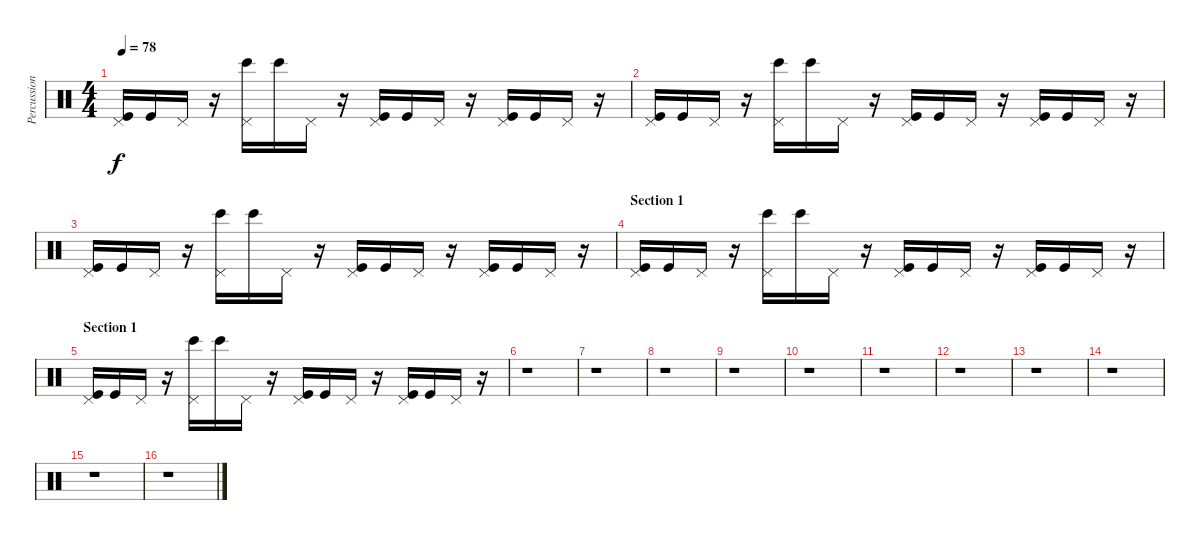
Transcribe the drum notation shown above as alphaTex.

\track ("Percussions" "Percussion") {instrument percussion}
\staff {score}
\articulation defaults
\ts (4 4)
\tempo 78
\clef neutral
\ks c
("Kick (hit)" "Pedal Hi-Hat (hit)").16{dy f} "Kick (hit)".16 "Pedal Hi-Hat (hit)".16 r.16 ("Bongo High (hit)" "Pedal Hi-Hat (hit)").16 "Bongo High (hit)".16 "Pedal Hi-Hat (hit)".16 r.16 ("Kick (hit)" "Pedal Hi-Hat (hit)").16 "Kick (hit)".16 "Pedal Hi-Hat (hit)".16 r.16 ("Kick (hit)" "Pedal Hi-Hat (hit)").16 "Kick (hit)".16 "Pedal Hi-Hat (hit)".16 r.16 |
("Kick (hit)" "Pedal Hi-Hat (hit)").16 "Kick (hit)".16 "Pedal Hi-Hat (hit)".16 r.16 ("Bongo High (hit)" "Pedal Hi-Hat (hit)").16 "Bongo High (hit)".16 "Pedal Hi-Hat (hit)".16 r.16 ("Kick (hit)" "Pedal Hi-Hat (hit)").16 "Kick (hit)".16 "Pedal Hi-Hat (hit)".16 r.16 ("Kick (hit)" "Pedal Hi-Hat (hit)").16 "Kick (hit)".16 "Pedal Hi-Hat (hit)".16 r.16 |
("Kick (hit)" "Pedal Hi-Hat (hit)").16 "Kick (hit)".16 "Pedal Hi-Hat (hit)".16 r.16 ("Bongo High (hit)" "Pedal Hi-Hat (hit)").16 "Bongo High (hit)".16 "Pedal Hi-Hat (hit)".16 r.16 ("Kick (hit)" "Pedal Hi-Hat (hit)").16 "Kick (hit)".16 "Pedal Hi-Hat (hit)".16 r.16 ("Kick (hit)" "Pedal Hi-Hat (hit)").16 "Kick (hit)".16{volume 9} "Pedal Hi-Hat (hit)".16{volume 9} r.16 |
\section ("" "Section 1")
("Kick (hit)" "Pedal Hi-Hat (hit)").16{volume 9} "Kick (hit)".16{volume 8} "Pedal Hi-Hat (hit)".16{volume 8} r.16 ("Bongo High (hit)" "Pedal Hi-Hat (hit)").16{volume 8} "Bongo High (hit)".16{volume 8} "Pedal Hi-Hat (hit)".16{volume 7} r.16 ("Kick (hit)" "Pedal Hi-Hat (hit)").16{volume 7} "Kick (hit)".16{volume 7} "Pedal Hi-Hat (hit)".16{volume 7} r.16 ("Kick (hit)" "Pedal Hi-Hat (hit)").16{volume 6} "Kick (hit)".16{volume 6} "Pedal Hi-Hat (hit)".16{volume 6} r.16 |
\section ("" "Section 1")
("Kick (hit)" "Pedal Hi-Hat (hit)").16{volume 6} "Kick (hit)".16{volume 6} "Pedal Hi-Hat (hit)".16{volume 6} r.16 ("Bongo High (hit)" "Pedal Hi-Hat (hit)").16{volume 5} "Bongo High (hit)".16{volume 5} "Pedal Hi-Hat (hit)".16{volume 5} r.16 ("Kick (hit)" "Pedal Hi-Hat (hit)").16{volume 5} "Kick (hit)".16{volume 5} "Pedal Hi-Hat (hit)".16{volume 4} r.16 ("Kick (hit)" "Pedal Hi-Hat (hit)").16{volume 4} "Kick (hit)".16{volume 4} "Pedal Hi-Hat (hit)".16{volume 4} r.16 |
r.1 |
r.1 |
r.1 |
r.1 |
r.1 |
r.1 |
r.1 |
r.1 |
r.1 |
r.1 |
r.1
